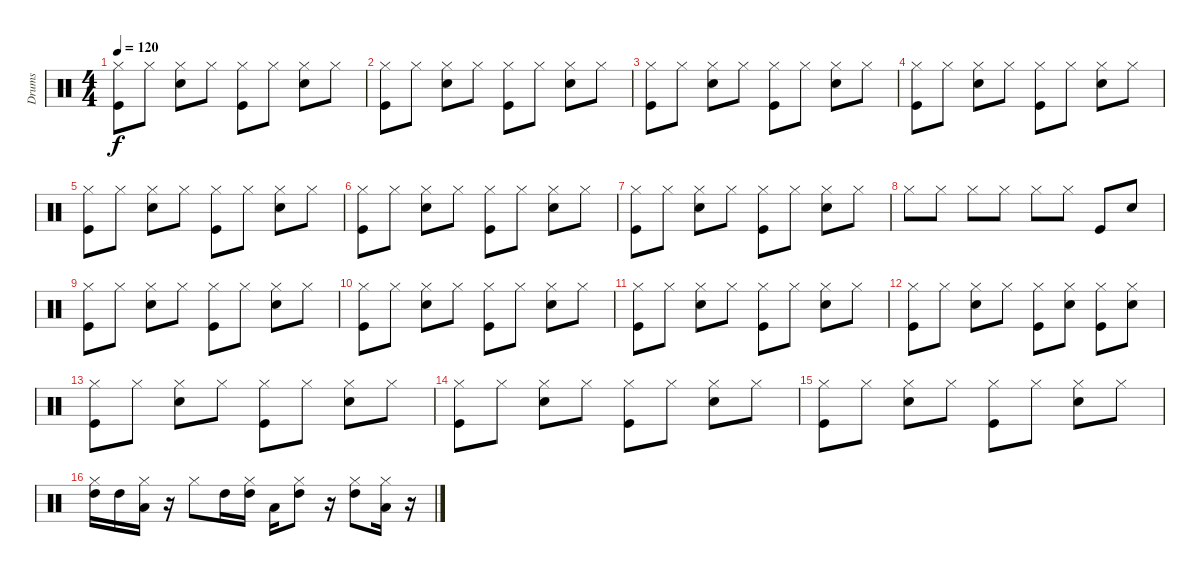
\track ("Drums" "Drums") {instrument percussion}
\staff {score}
\articulation defaults
\ts (4 4)
\tempo 120
\clef neutral
\ks c
("Kick (hit)" "Hi-Hat (closed)").8{dy f} "Hi-Hat (closed)".8 ("Snare (hit) 2" "Hi-Hat (closed)").8 "Hi-Hat (closed)".8 ("Kick (hit)" "Hi-Hat (closed)").8 "Hi-Hat (closed)".8 ("Snare (hit) 2" "Hi-Hat (closed)").8 "Hi-Hat (closed)".8 |
("Kick (hit)" "Hi-Hat (closed)").8 "Hi-Hat (closed)".8 ("Snare (hit) 2" "Hi-Hat (closed)").8 "Hi-Hat (closed)".8 ("Kick (hit)" "Hi-Hat (closed)").8 "Hi-Hat (closed)".8 ("Snare (hit) 2" "Hi-Hat (closed)").8 "Hi-Hat (closed)".8 |
("Kick (hit)" "Hi-Hat (closed)").8 "Hi-Hat (closed)".8 ("Snare (hit) 2" "Hi-Hat (closed)").8 "Hi-Hat (closed)".8 ("Kick (hit)" "Hi-Hat (closed)").8 "Hi-Hat (closed)".8 ("Snare (hit) 2" "Hi-Hat (closed)").8 "Hi-Hat (closed)".8 |
("Kick (hit)" "Hi-Hat (closed)").8 "Hi-Hat (closed)".8 ("Snare (hit) 2" "Hi-Hat (closed)").8 "Hi-Hat (closed)".8 ("Kick (hit)" "Hi-Hat (closed)").8 "Hi-Hat (closed)".8 ("Snare (hit) 2" "Hi-Hat (closed)").8 "Hi-Hat (closed)".8 |
("Kick (hit)" "Hi-Hat (closed)").8 "Hi-Hat (closed)".8 ("Snare (hit) 2" "Hi-Hat (closed)").8 "Hi-Hat (closed)".8 ("Kick (hit)" "Hi-Hat (closed)").8 "Hi-Hat (closed)".8 ("Snare (hit) 2" "Hi-Hat (closed)").8 "Hi-Hat (closed)".8 |
("Kick (hit)" "Hi-Hat (closed)").8 "Hi-Hat (closed)".8 ("Snare (hit) 2" "Hi-Hat (closed)").8 "Hi-Hat (closed)".8 ("Kick (hit)" "Hi-Hat (closed)").8 "Hi-Hat (closed)".8 ("Snare (hit) 2" "Hi-Hat (closed)").8 "Hi-Hat (closed)".8 |
("Kick (hit)" "Hi-Hat (closed)").8 "Hi-Hat (closed)".8 ("Snare (hit) 2" "Hi-Hat (closed)").8 "Hi-Hat (closed)".8 ("Kick (hit)" "Hi-Hat (closed)").8 "Hi-Hat (closed)".8 ("Snare (hit) 2" "Hi-Hat (closed)").8 "Hi-Hat (closed)".8 |
"Hi-Hat (closed)".8 "Hi-Hat (closed)".8 "Hi-Hat (closed)".8 "Hi-Hat (closed)".8 "Hi-Hat (closed)".8 "Hi-Hat (closed)".8 "Kick (hit)".8 "Electric Snare (hit)".8 |
("Kick (hit)" "Hi-Hat (closed)").8 "Hi-Hat (closed)".8 ("Snare (hit) 2" "Hi-Hat (closed)").8 "Hi-Hat (closed)".8 ("Kick (hit)" "Hi-Hat (closed)").8 "Hi-Hat (closed)".8 ("Snare (hit) 2" "Hi-Hat (closed)").8 "Hi-Hat (closed)".8 |
("Kick (hit)" "Hi-Hat (closed)").8 "Hi-Hat (closed)".8 ("Snare (hit) 2" "Hi-Hat (closed)").8 "Hi-Hat (closed)".8 ("Kick (hit)" "Hi-Hat (closed)").8 "Hi-Hat (closed)".8 ("Snare (hit) 2" "Hi-Hat (closed)").8 "Hi-Hat (closed)".8 |
("Kick (hit)" "Hi-Hat (closed)").8 "Hi-Hat (closed)".8 ("Snare (hit) 2" "Hi-Hat (closed)").8 "Hi-Hat (closed)".8 ("Kick (hit)" "Hi-Hat (closed)").8 "Hi-Hat (closed)".8 ("Snare (hit) 2" "Hi-Hat (closed)").8 "Hi-Hat (closed)".8 |
("Kick (hit)" "Hi-Hat (closed)").8 "Hi-Hat (closed)".8 ("Snare (hit) 2" "Hi-Hat (closed)").8 "Hi-Hat (closed)".8 ("Kick (hit)" "Hi-Hat (closed)").8 ("Snare (hit) 2" "Hi-Hat (closed)").8 ("Kick (hit)" "Hi-Hat (closed)").8 ("Snare (hit) 2" "Hi-Hat (closed)").8 |
("Kick (hit)" "Hi-Hat (closed)").8 "Hi-Hat (closed)".8 ("Snare (hit) 2" "Hi-Hat (closed)").8 "Hi-Hat (closed)".8 ("Kick (hit)" "Hi-Hat (closed)").8 "Hi-Hat (closed)".8 ("Snare (hit) 2" "Hi-Hat (closed)").8 "Hi-Hat (closed)".8 |
("Kick (hit)" "Hi-Hat (closed)").8 "Hi-Hat (closed)".8 ("Snare (hit) 2" "Hi-Hat (closed)").8 "Hi-Hat (closed)".8 ("Kick (hit)" "Hi-Hat (closed)").8 "Hi-Hat (closed)".8 ("Snare (hit) 2" "Hi-Hat (closed)").8 "Hi-Hat (closed)".8 |
("Kick (hit)" "Hi-Hat (closed)").8 "Hi-Hat (closed)".8 ("Snare (hit) 2" "Hi-Hat (closed)").8 "Hi-Hat (closed)".8 ("Kick (hit)" "Hi-Hat (closed)").8 "Hi-Hat (closed)".8 ("Snare (hit) 2" "Hi-Hat (closed)").8 "Hi-Hat (closed)".8 |
("High Tom (hit)" "Hi-Hat (closed)").16 "High Tom (hit)".16 ("Low Tom (hit)" "Hi-Hat (closed)").16 r.16 "Hi-Hat (closed)".8 "High Tom (hit)".16 ("High Tom (hit)" "Hi-Hat (closed)").16 "Low Tom (hit)".16 ("High Tom (hit)" "Hi-Hat (closed)").8 r.16 ("High Tom (hit)" "Hi-Hat (closed)").8 ("Low Tom (hit)" "Hi-Hat (closed)").16 r.16
